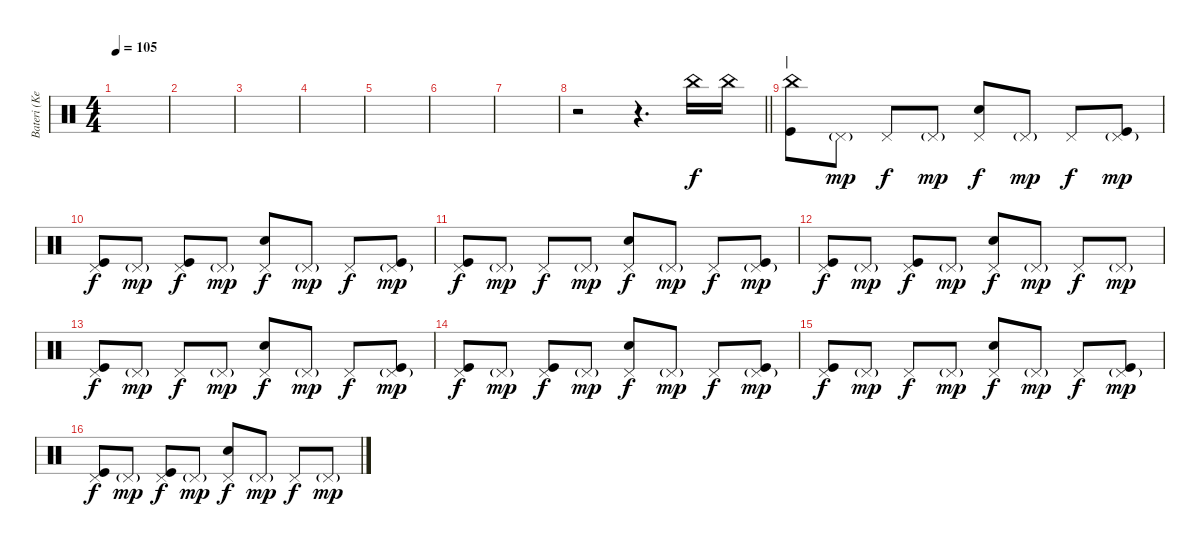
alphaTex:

\track ("Bateri (Kerem Kabadayı)" "Bateri (Ke") {instrument percussion}
\staff {score}
\articulation defaults
\ts (4 4)
\tempo 105
\clef neutral
\ks c
|
|
|
|
|
|
|
\barLineRight lightlight
r.2 r.4{d} "China (hit)".16 "China (hit)".16 |
\section ("" "|")
("China (hit)" "Kick (hit)").8 "Pedal Hi-Hat (hit)"{g}.8{dy mp} "Pedal Hi-Hat (hit)".8{dy f} "Pedal Hi-Hat (hit)"{g}.8{dy mp} ("Pedal Hi-Hat (hit)" "Electric Snare (hit)").8{dy f} "Pedal Hi-Hat (hit)"{g}.8{dy mp} "Pedal Hi-Hat (hit)".8{dy f} ("Pedal Hi-Hat (hit)"{g} "Kick (hit)").8{dy mp} |
("Pedal Hi-Hat (hit)" "Kick (hit)").8{dy f} "Pedal Hi-Hat (hit)"{g}.8{dy mp} ("Pedal Hi-Hat (hit)" "Kick (hit)").8{dy f} "Pedal Hi-Hat (hit)"{g}.8{dy mp} ("Pedal Hi-Hat (hit)" "Electric Snare (hit)").8{dy f} "Pedal Hi-Hat (hit)"{g}.8{dy mp} "Pedal Hi-Hat (hit)".8{dy f} ("Pedal Hi-Hat (hit)"{g} "Kick (hit)").8{dy mp} |
("Pedal Hi-Hat (hit)" "Kick (hit)").8{dy f} "Pedal Hi-Hat (hit)"{g}.8{dy mp} "Pedal Hi-Hat (hit)".8{dy f} "Pedal Hi-Hat (hit)"{g}.8{dy mp} ("Pedal Hi-Hat (hit)" "Electric Snare (hit)").8{dy f} "Pedal Hi-Hat (hit)"{g}.8{dy mp} "Pedal Hi-Hat (hit)".8{dy f} ("Pedal Hi-Hat (hit)"{g} "Kick (hit)").8{dy mp} |
("Pedal Hi-Hat (hit)" "Kick (hit)").8{dy f} "Pedal Hi-Hat (hit)"{g}.8{dy mp} ("Pedal Hi-Hat (hit)" "Kick (hit)").8{dy f} "Pedal Hi-Hat (hit)"{g}.8{dy mp} ("Pedal Hi-Hat (hit)" "Electric Snare (hit)").8{dy f} "Pedal Hi-Hat (hit)"{g}.8{dy mp} "Pedal Hi-Hat (hit)".8{dy f} "Pedal Hi-Hat (hit)"{g}.8{dy mp} |
("Pedal Hi-Hat (hit)" "Kick (hit)").8{dy f} "Pedal Hi-Hat (hit)"{g}.8{dy mp} "Pedal Hi-Hat (hit)".8{dy f} "Pedal Hi-Hat (hit)"{g}.8{dy mp} ("Pedal Hi-Hat (hit)" "Electric Snare (hit)").8{dy f} "Pedal Hi-Hat (hit)"{g}.8{dy mp} "Pedal Hi-Hat (hit)".8{dy f} ("Pedal Hi-Hat (hit)"{g} "Kick (hit)").8{dy mp} |
("Pedal Hi-Hat (hit)" "Kick (hit)").8{dy f} "Pedal Hi-Hat (hit)"{g}.8{dy mp} ("Pedal Hi-Hat (hit)" "Kick (hit)").8{dy f} "Pedal Hi-Hat (hit)"{g}.8{dy mp} ("Pedal Hi-Hat (hit)" "Electric Snare (hit)").8{dy f} "Pedal Hi-Hat (hit)"{g}.8{dy mp} "Pedal Hi-Hat (hit)".8{dy f} ("Pedal Hi-Hat (hit)"{g} "Kick (hit)").8{dy mp} |
("Pedal Hi-Hat (hit)" "Kick (hit)").8{dy f} "Pedal Hi-Hat (hit)"{g}.8{dy mp} "Pedal Hi-Hat (hit)".8{dy f} "Pedal Hi-Hat (hit)"{g}.8{dy mp} ("Pedal Hi-Hat (hit)" "Electric Snare (hit)").8{dy f} "Pedal Hi-Hat (hit)"{g}.8{dy mp} "Pedal Hi-Hat (hit)".8{dy f} ("Pedal Hi-Hat (hit)"{g} "Kick (hit)").8{dy mp} |
("Pedal Hi-Hat (hit)" "Kick (hit)").8{dy f} "Pedal Hi-Hat (hit)"{g}.8{dy mp} ("Pedal Hi-Hat (hit)" "Kick (hit)").8{dy f} "Pedal Hi-Hat (hit)"{g}.8{dy mp} ("Pedal Hi-Hat (hit)" "Electric Snare (hit)").8{dy f} "Pedal Hi-Hat (hit)"{g}.8{dy mp} "Pedal Hi-Hat (hit)".8{dy f} "Pedal Hi-Hat (hit)"{g}.8{dy mp}
